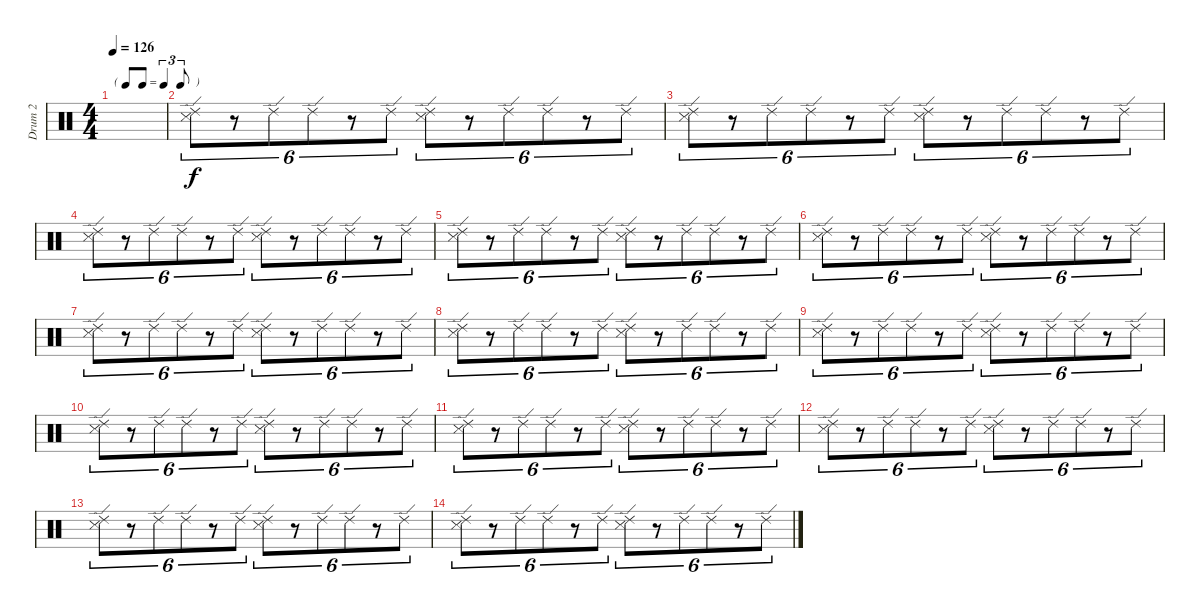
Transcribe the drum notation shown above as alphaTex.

\track ("Drum 2" "Drum 2") {instrument percussion}
\staff {score}
\articulation defaults
\ts (4 4)
\tf triplet8th
\tempo 126
\clef neutral
\ks c
|
("Ride (edge) 2" "Snare (side stick) 3").8{tu (6 4)} r.8{tu (6 4)} "Ride (edge) 2".8{tu (6 4)} "Ride (edge) 2".8{tu (6 4)} r.8{tu (6 4)} "Ride (edge) 2".8{tu (6 4)} ("Ride (edge) 2" "Snare (side stick) 3").8{tu (6 4)} r.8{tu (6 4)} "Ride (edge) 2".8{tu (6 4)} "Ride (edge) 2".8{tu (6 4)} r.8{tu (6 4)} "Ride (edge) 2".8{tu (6 4)} |
("Ride (edge) 2" "Snare (side stick) 3").8{tu (6 4)} r.8{tu (6 4)} "Ride (edge) 2".8{tu (6 4)} "Ride (edge) 2".8{tu (6 4)} r.8{tu (6 4)} "Ride (edge) 2".8{tu (6 4)} ("Ride (edge) 2" "Snare (side stick) 3").8{tu (6 4)} r.8{tu (6 4)} "Ride (edge) 2".8{tu (6 4)} "Ride (edge) 2".8{tu (6 4)} r.8{tu (6 4)} "Ride (edge) 2".8{tu (6 4)} |
("Ride (edge) 2" "Snare (side stick) 3").8{tu (6 4)} r.8{tu (6 4)} "Ride (edge) 2".8{tu (6 4)} "Ride (edge) 2".8{tu (6 4)} r.8{tu (6 4)} "Ride (edge) 2".8{tu (6 4)} ("Ride (edge) 2" "Snare (side stick) 3").8{tu (6 4)} r.8{tu (6 4)} "Ride (edge) 2".8{tu (6 4)} "Ride (edge) 2".8{tu (6 4)} r.8{tu (6 4)} "Ride (edge) 2".8{tu (6 4)} |
("Ride (edge) 2" "Snare (side stick) 3").8{tu (6 4)} r.8{tu (6 4)} "Ride (edge) 2".8{tu (6 4)} "Ride (edge) 2".8{tu (6 4)} r.8{tu (6 4)} "Ride (edge) 2".8{tu (6 4)} ("Ride (edge) 2" "Snare (side stick) 3").8{tu (6 4)} r.8{tu (6 4)} "Ride (edge) 2".8{tu (6 4)} "Ride (edge) 2".8{tu (6 4)} r.8{tu (6 4)} "Ride (edge) 2".8{tu (6 4)} |
("Ride (edge) 2" "Snare (side stick) 3").8{tu (6 4)} r.8{tu (6 4)} "Ride (edge) 2".8{tu (6 4)} "Ride (edge) 2".8{tu (6 4)} r.8{tu (6 4)} "Ride (edge) 2".8{tu (6 4)} ("Ride (edge) 2" "Snare (side stick) 3").8{tu (6 4)} r.8{tu (6 4)} "Ride (edge) 2".8{tu (6 4)} "Ride (edge) 2".8{tu (6 4)} r.8{tu (6 4)} "Ride (edge) 2".8{tu (6 4)} |
("Ride (edge) 2" "Snare (side stick) 3").8{tu (6 4)} r.8{tu (6 4)} "Ride (edge) 2".8{tu (6 4)} "Ride (edge) 2".8{tu (6 4)} r.8{tu (6 4)} "Ride (edge) 2".8{tu (6 4)} ("Ride (edge) 2" "Snare (side stick) 3").8{tu (6 4)} r.8{tu (6 4)} "Ride (edge) 2".8{tu (6 4)} "Ride (edge) 2".8{tu (6 4)} r.8{tu (6 4)} "Ride (edge) 2".8{tu (6 4)} |
("Ride (edge) 2" "Snare (side stick) 3").8{tu (6 4)} r.8{tu (6 4)} "Ride (edge) 2".8{tu (6 4)} "Ride (edge) 2".8{tu (6 4)} r.8{tu (6 4)} "Ride (edge) 2".8{tu (6 4)} ("Ride (edge) 2" "Snare (side stick) 3").8{tu (6 4)} r.8{tu (6 4)} "Ride (edge) 2".8{tu (6 4)} "Ride (edge) 2".8{tu (6 4)} r.8{tu (6 4)} "Ride (edge) 2".8{tu (6 4)} |
("Ride (edge) 2" "Snare (side stick) 3").8{tu (6 4)} r.8{tu (6 4)} "Ride (edge) 2".8{tu (6 4)} "Ride (edge) 2".8{tu (6 4)} r.8{tu (6 4)} "Ride (edge) 2".8{tu (6 4)} ("Ride (edge) 2" "Snare (side stick) 3").8{tu (6 4)} r.8{tu (6 4)} "Ride (edge) 2".8{tu (6 4)} "Ride (edge) 2".8{tu (6 4)} r.8{tu (6 4)} "Ride (edge) 2".8{tu (6 4)} |
("Ride (edge) 2" "Snare (side stick) 3").8{tu (6 4)} r.8{tu (6 4)} "Ride (edge) 2".8{tu (6 4)} "Ride (edge) 2".8{tu (6 4)} r.8{tu (6 4)} "Ride (edge) 2".8{tu (6 4)} ("Ride (edge) 2" "Snare (side stick) 3").8{tu (6 4)} r.8{tu (6 4)} "Ride (edge) 2".8{tu (6 4)} "Ride (edge) 2".8{tu (6 4)} r.8{tu (6 4)} "Ride (edge) 2".8{tu (6 4)} |
("Ride (edge) 2" "Snare (side stick) 3").8{tu (6 4)} r.8{tu (6 4)} "Ride (edge) 2".8{tu (6 4)} "Ride (edge) 2".8{tu (6 4)} r.8{tu (6 4)} "Ride (edge) 2".8{tu (6 4)} ("Ride (edge) 2" "Snare (side stick) 3").8{tu (6 4)} r.8{tu (6 4)} "Ride (edge) 2".8{tu (6 4)} "Ride (edge) 2".8{tu (6 4)} r.8{tu (6 4)} "Ride (edge) 2".8{tu (6 4)} |
("Ride (edge) 2" "Snare (side stick) 3").8{tu (6 4)} r.8{tu (6 4)} "Ride (edge) 2".8{tu (6 4)} "Ride (edge) 2".8{tu (6 4)} r.8{tu (6 4)} "Ride (edge) 2".8{tu (6 4)} ("Ride (edge) 2" "Snare (side stick) 3").8{tu (6 4)} r.8{tu (6 4)} "Ride (edge) 2".8{tu (6 4)} "Ride (edge) 2".8{tu (6 4)} r.8{tu (6 4)} "Ride (edge) 2".8{tu (6 4)} |
("Ride (edge) 2" "Snare (side stick) 3").8{tu (6 4)} r.8{tu (6 4)} "Ride (edge) 2".8{tu (6 4)} "Ride (edge) 2".8{tu (6 4)} r.8{tu (6 4)} "Ride (edge) 2".8{tu (6 4)} ("Ride (edge) 2" "Snare (side stick) 3").8{tu (6 4)} r.8{tu (6 4)} "Ride (edge) 2".8{tu (6 4)} "Ride (edge) 2".8{tu (6 4)} r.8{tu (6 4)} "Ride (edge) 2".8{tu (6 4)} |
("Ride (edge) 2" "Snare (side stick) 3").8{tu (6 4)} r.8{tu (6 4)} "Ride (edge) 2".8{tu (6 4)} "Ride (edge) 2".8{tu (6 4)} r.8{tu (6 4)} "Ride (edge) 2".8{tu (6 4)} ("Ride (edge) 2" "Snare (side stick) 3").8{tu (6 4)} r.8{tu (6 4)} "Ride (edge) 2".8{tu (6 4)} "Ride (edge) 2".8{tu (6 4)} r.8{tu (6 4)} "Ride (edge) 2".8{tu (6 4)}
